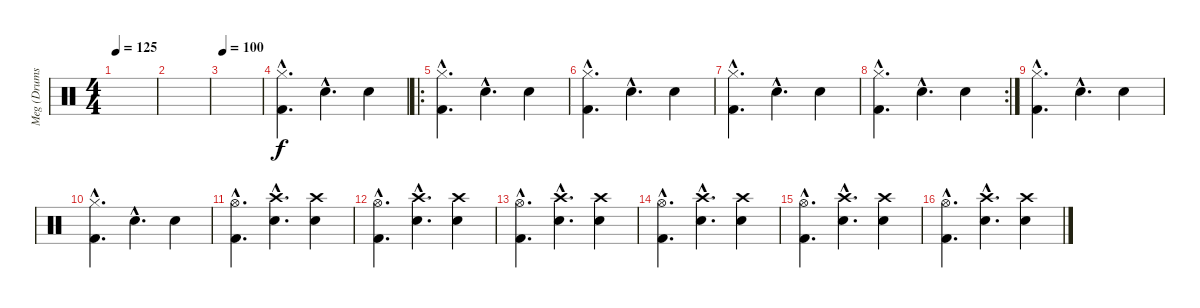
\track ("Meg (Drums)" "Meg (Drums") {instrument percussion}
\staff {score}
\articulation defaults
\ts (4 4)
\tempo 125
\clef neutral
\ks c
|
|
\tempo 100
|
("Hi-Hat (closed)"{hac} "Kick (hit) 2"{hac}).4{d} "Snare (hit) 2"{hac}.4{d} "Snare (hit) 2".4 |
\ro
("Hi-Hat (closed)"{hac} "Kick (hit) 2"{hac}).4{d} "Snare (hit) 2"{hac}.4{d} "Snare (hit) 2".4 |
("Hi-Hat (closed)"{hac} "Kick (hit) 2"{hac}).4{d} "Snare (hit) 2"{hac}.4{d} "Snare (hit) 2".4 |
("Hi-Hat (closed)"{hac} "Kick (hit) 2"{hac}).4{d} "Snare (hit) 2"{hac}.4{d} "Snare (hit) 2".4 |
\rc 2
("Hi-Hat (closed)"{hac} "Kick (hit) 2"{hac}).4{d} "Snare (hit) 2"{hac}.4{d} "Snare (hit) 2".4 |
("Hi-Hat (closed)"{hac} "Kick (hit) 2"{hac}).4{d} "Snare (hit) 2"{hac}.4{d} "Snare (hit) 2".4 |
("Hi-Hat (closed)"{hac} "Kick (hit) 2"{hac}).4{d} "Snare (hit) 2"{hac}.4{d} "Snare (hit) 2".4 |
("Hi-Hat (open)"{hac} "Kick (hit) 2"{hac}).4{d} ("Crash high (hit)"{hac} "Snare (hit) 2"{hac}).4{d} ("Crash high (hit)" "Snare (hit) 2").4 |
("Hi-Hat (open)"{hac} "Kick (hit) 2"{hac}).4{d} ("Crash high (hit)"{hac} "Snare (hit) 2"{hac}).4{d} ("Crash high (hit)" "Snare (hit) 2").4 |
("Hi-Hat (open)"{hac} "Kick (hit) 2"{hac}).4{d} ("Crash high (hit)"{hac} "Snare (hit) 2"{hac}).4{d} ("Crash high (hit)" "Snare (hit) 2").4 |
("Hi-Hat (open)"{hac} "Kick (hit) 2"{hac}).4{d} ("Crash high (hit)"{hac} "Snare (hit) 2"{hac}).4{d} ("Crash high (hit)" "Snare (hit) 2").4 |
("Hi-Hat (open)"{hac} "Kick (hit) 2"{hac}).4{d} ("Crash high (hit)"{hac} "Snare (hit) 2"{hac}).4{d} ("Crash high (hit)" "Snare (hit) 2").4 |
("Hi-Hat (open)"{hac} "Kick (hit) 2"{hac}).4{d} ("Crash high (hit)"{hac} "Snare (hit) 2"{hac}).4{d} ("Crash high (hit)" "Snare (hit) 2").4
